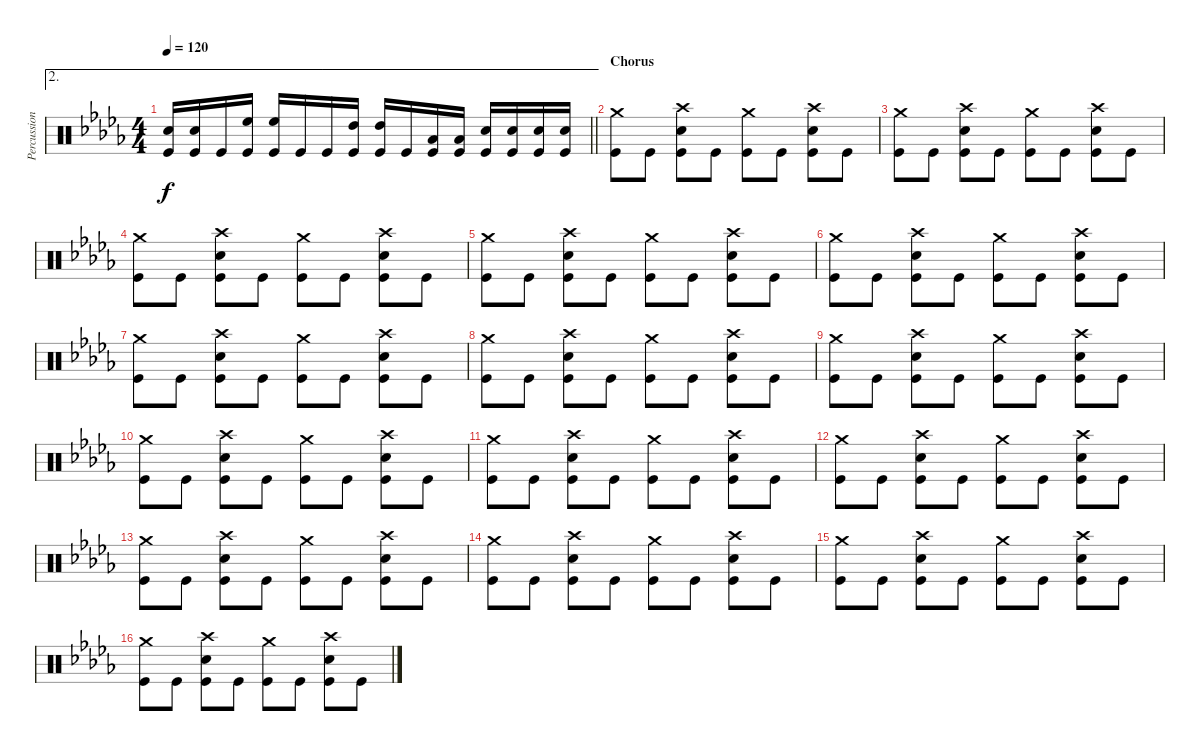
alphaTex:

\track ("Percussion" "Percussion") {instrument percussion}
\staff {score}
\articulation defaults
\ae 2
\ts (4 4)
\tempo 120
\clef neutral
\barLineRight lightlight
\ks bbminor
("Snare (hit) 2" "Kick (hit)").16{dy f} ("Snare (hit) 2" "Kick (hit)").16 "Kick (hit)".16 ("High Floor Tom (hit)" "Kick (hit)").16 ("High Floor Tom (hit)" "Kick (hit)").16 "Kick (hit)".16 "Kick (hit)".16 ("High Tom (hit)" "Kick (hit)").16 ("High Tom (hit)" "Kick (hit)").16 "Kick (hit)".16 ("Low Tom (hit)" "Kick (hit)").16 ("Low Tom (hit)" "Kick (hit)").16 ("Snare (hit) 2" "Kick (hit)").16 ("Snare (hit) 2" "Kick (hit)").16 ("Snare (hit) 2" "Kick (hit)").16 ("Snare (hit) 2" "Kick (hit)").16 |
\section ("" "Chorus")
("Crash medium (hit)" "Kick (hit)").8 "Kick (hit)".8 ("Crash high (hit)" "Snare (hit) 2" "Kick (hit)").8 "Kick (hit)".8 ("Crash medium (hit)" "Kick (hit)").8 "Kick (hit)".8 ("Crash high (hit)" "Snare (hit) 2" "Kick (hit)").8 "Kick (hit)".8 |
("Crash medium (hit)" "Kick (hit)").8 "Kick (hit)".8 ("Crash high (hit)" "Snare (hit) 2" "Kick (hit)").8 "Kick (hit)".8 ("Crash medium (hit)" "Kick (hit)").8 "Kick (hit)".8 ("Crash high (hit)" "Snare (hit) 2" "Kick (hit)").8 "Kick (hit)".8 |
("Crash medium (hit)" "Kick (hit)").8 "Kick (hit)".8 ("Crash high (hit)" "Snare (hit) 2" "Kick (hit)").8 "Kick (hit)".8 ("Crash medium (hit)" "Kick (hit)").8 "Kick (hit)".8 ("Crash high (hit)" "Snare (hit) 2" "Kick (hit)").8 "Kick (hit)".8 |
("Crash medium (hit)" "Kick (hit)").8 "Kick (hit)".8 ("Crash high (hit)" "Snare (hit) 2" "Kick (hit)").8 "Kick (hit)".8 ("Crash medium (hit)" "Kick (hit)").8 "Kick (hit)".8 ("Crash high (hit)" "Snare (hit) 2" "Kick (hit)").8 "Kick (hit)".8 |
("Crash medium (hit)" "Kick (hit)").8 "Kick (hit)".8 ("Crash high (hit)" "Snare (hit) 2" "Kick (hit)").8 "Kick (hit)".8 ("Crash medium (hit)" "Kick (hit)").8 "Kick (hit)".8 ("Crash high (hit)" "Snare (hit) 2" "Kick (hit)").8 "Kick (hit)".8 |
("Crash medium (hit)" "Kick (hit)").8 "Kick (hit)".8 ("Crash high (hit)" "Snare (hit) 2" "Kick (hit)").8 "Kick (hit)".8 ("Crash medium (hit)" "Kick (hit)").8 "Kick (hit)".8 ("Crash high (hit)" "Snare (hit) 2" "Kick (hit)").8 "Kick (hit)".8 |
("Crash medium (hit)" "Kick (hit)").8 "Kick (hit)".8 ("Crash high (hit)" "Snare (hit) 2" "Kick (hit)").8 "Kick (hit)".8 ("Crash medium (hit)" "Kick (hit)").8 "Kick (hit)".8 ("Crash high (hit)" "Snare (hit) 2" "Kick (hit)").8 "Kick (hit)".8 |
("Crash medium (hit)" "Kick (hit)").8 "Kick (hit)".8 ("Crash high (hit)" "Snare (hit) 2" "Kick (hit)").8 "Kick (hit)".8 ("Crash medium (hit)" "Kick (hit)").8 "Kick (hit)".8 ("Crash high (hit)" "Snare (hit) 2" "Kick (hit)").8 "Kick (hit)".8 |
("Crash medium (hit)" "Kick (hit)").8 "Kick (hit)".8 ("Crash high (hit)" "Snare (hit) 2" "Kick (hit)").8 "Kick (hit)".8 ("Crash medium (hit)" "Kick (hit)").8 "Kick (hit)".8 ("Crash high (hit)" "Snare (hit) 2" "Kick (hit)").8 "Kick (hit)".8 |
("Crash medium (hit)" "Kick (hit)").8 "Kick (hit)".8 ("Crash high (hit)" "Snare (hit) 2" "Kick (hit)").8 "Kick (hit)".8 ("Crash medium (hit)" "Kick (hit)").8 "Kick (hit)".8 ("Crash high (hit)" "Snare (hit) 2" "Kick (hit)").8 "Kick (hit)".8 |
("Crash medium (hit)" "Kick (hit)").8 "Kick (hit)".8 ("Crash high (hit)" "Snare (hit) 2" "Kick (hit)").8 "Kick (hit)".8 ("Crash medium (hit)" "Kick (hit)").8 "Kick (hit)".8 ("Crash high (hit)" "Snare (hit) 2" "Kick (hit)").8 "Kick (hit)".8 |
("Crash medium (hit)" "Kick (hit)").8 "Kick (hit)".8 ("Crash high (hit)" "Snare (hit) 2" "Kick (hit)").8 "Kick (hit)".8 ("Crash medium (hit)" "Kick (hit)").8 "Kick (hit)".8 ("Crash high (hit)" "Snare (hit) 2" "Kick (hit)").8 "Kick (hit)".8 |
("Crash medium (hit)" "Kick (hit)").8 "Kick (hit)".8 ("Crash high (hit)" "Snare (hit) 2" "Kick (hit)").8 "Kick (hit)".8 ("Crash medium (hit)" "Kick (hit)").8 "Kick (hit)".8 ("Crash high (hit)" "Snare (hit) 2" "Kick (hit)").8 "Kick (hit)".8 |
("Crash medium (hit)" "Kick (hit)").8 "Kick (hit)".8 ("Crash high (hit)" "Snare (hit) 2" "Kick (hit)").8 "Kick (hit)".8 ("Crash medium (hit)" "Kick (hit)").8 "Kick (hit)".8 ("Crash high (hit)" "Snare (hit) 2" "Kick (hit)").8 "Kick (hit)".8 |
("Crash medium (hit)" "Kick (hit)").8 "Kick (hit)".8 ("Crash high (hit)" "Snare (hit) 2" "Kick (hit)").8 "Kick (hit)".8 ("Crash medium (hit)" "Kick (hit)").8 "Kick (hit)".8 ("Crash high (hit)" "Snare (hit) 2" "Kick (hit)").8 "Kick (hit)".8
